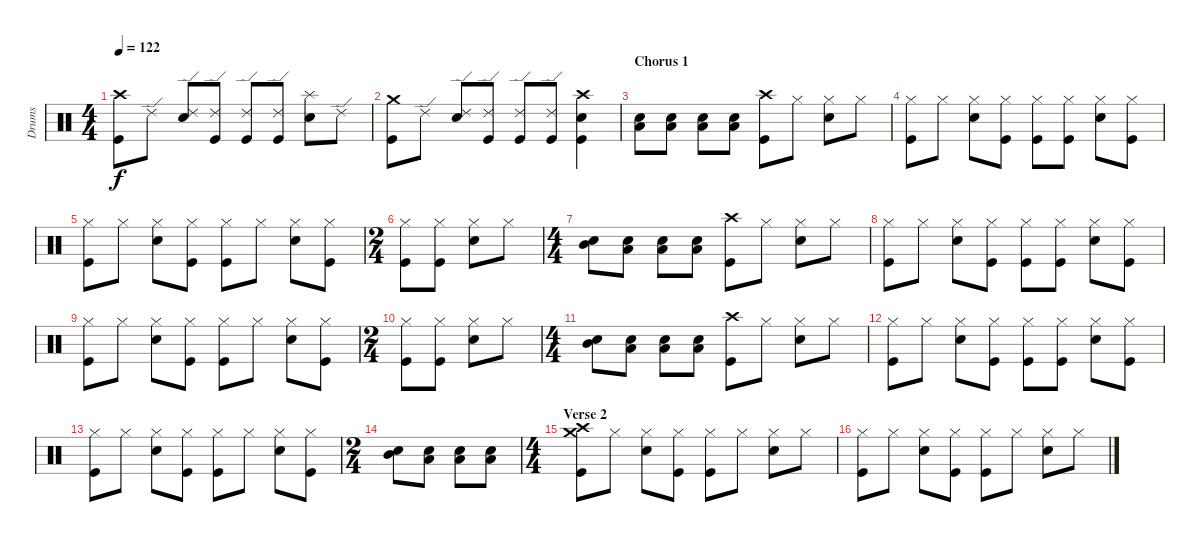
\track ("Drums" "Drums") {instrument percussion}
\staff {score}
\articulation defaults
\ts (4 4)
\tempo 122
\clef neutral
\ks c
("Crash high (hit)" "Kick (hit)").8{dy f} "Ride (edge) 2".8 ("Ride (edge) 2" "Snare (hit) 2").8 ("Ride (edge) 2" "Kick (hit)").8 ("Ride (edge) 2" "Kick (hit)").8 ("Ride (edge) 2" "Kick (hit)").8 ("Splash (hit)" "Snare (hit) 2").8 "Ride (edge) 2".8 |
("Crash medium (hit)" "Kick (hit)").8 "Ride (edge) 2".8 ("Ride (edge) 2" "Snare (hit) 2").8 ("Ride (edge) 2" "Kick (hit)").8 ("Ride (edge) 2" "Kick (hit)").8 ("Ride (edge) 2" "Kick (hit)").8 ("Crash high (hit)" "Snare (hit) 2" "Kick (hit)").4 |
\section ("" "Chorus 1")
("Low Floor Tom (hit)" "Snare (hit) 2").8 ("Low Floor Tom (hit)" "Snare (hit) 2").8 ("Low Floor Tom (hit)" "Snare (hit) 2").8 ("Low Floor Tom (hit)" "Snare (hit) 2").8 ("Crash high (hit)" "Kick (hit)").8 "Hi-Hat (closed)".8 ("Hi-Hat (closed)" "Snare (hit) 2").8 "Hi-Hat (closed)".8 |
("Hi-Hat (closed)" "Kick (hit)").8 "Hi-Hat (closed)".8 ("Hi-Hat (closed)" "Snare (hit) 2").8 ("Hi-Hat (closed)" "Kick (hit)").8 ("Hi-Hat (closed)" "Kick (hit)").8 ("Hi-Hat (closed)" "Kick (hit)").8 ("Hi-Hat (closed)" "Snare (hit) 2").8 ("Hi-Hat (closed)" "Kick (hit)").8 |
("Hi-Hat (closed)" "Kick (hit)").8 "Hi-Hat (closed)".8 ("Hi-Hat (closed)" "Snare (hit) 2").8 ("Hi-Hat (closed)" "Kick (hit)").8 ("Hi-Hat (closed)" "Kick (hit)").8 "Hi-Hat (closed)".8 ("Hi-Hat (closed)" "Snare (hit) 2").8 ("Hi-Hat (closed)" "Kick (hit)").8 |
\ts (2 4)
("Hi-Hat (closed)" "Kick (hit)").8 ("Hi-Hat (closed)" "Kick (hit)").8 ("Hi-Hat (closed)" "Snare (hit) 2").8 "Hi-Hat (closed)".8 |
\ts (4 4)
("Mid Tom (hit)" "Snare (hit) 2").8 ("Low Tom (hit)" "Snare (hit) 2").8 ("Low Floor Tom (hit)" "Snare (hit) 2").8 ("Low Floor Tom (hit)" "Snare (hit) 2").8 ("Crash high (hit)" "Kick (hit)").8 "Hi-Hat (closed)".8 ("Hi-Hat (closed)" "Snare (hit) 2").8 "Hi-Hat (closed)".8 |
("Hi-Hat (closed)" "Kick (hit)").8 "Hi-Hat (closed)".8 ("Hi-Hat (closed)" "Snare (hit) 2").8 ("Hi-Hat (closed)" "Kick (hit)").8 ("Hi-Hat (closed)" "Kick (hit)").8 ("Hi-Hat (closed)" "Kick (hit)").8 ("Hi-Hat (closed)" "Snare (hit) 2").8 ("Hi-Hat (closed)" "Kick (hit)").8 |
("Hi-Hat (closed)" "Kick (hit)").8 "Hi-Hat (closed)".8 ("Hi-Hat (closed)" "Snare (hit) 2").8 ("Hi-Hat (closed)" "Kick (hit)").8 ("Hi-Hat (closed)" "Kick (hit)").8 "Hi-Hat (closed)".8 ("Hi-Hat (closed)" "Snare (hit) 2").8 ("Hi-Hat (closed)" "Kick (hit)").8 |
\ts (2 4)
("Hi-Hat (closed)" "Kick (hit)").8 ("Hi-Hat (closed)" "Kick (hit)").8 ("Hi-Hat (closed)" "Snare (hit) 2").8 "Hi-Hat (closed)".8 |
\ts (4 4)
("Mid Tom (hit)" "Snare (hit) 2").8 ("Low Tom (hit)" "Snare (hit) 2").8 ("Low Floor Tom (hit)" "Snare (hit) 2").8 ("Low Floor Tom (hit)" "Snare (hit) 2").8 ("Crash high (hit)" "Kick (hit)").8 "Hi-Hat (closed)".8 ("Hi-Hat (closed)" "Snare (hit) 2").8 "Hi-Hat (closed)".8 |
("Hi-Hat (closed)" "Kick (hit)").8 "Hi-Hat (closed)".8 ("Hi-Hat (closed)" "Snare (hit) 2").8 ("Hi-Hat (closed)" "Kick (hit)").8 ("Hi-Hat (closed)" "Kick (hit)").8 ("Hi-Hat (closed)" "Kick (hit)").8 ("Hi-Hat (closed)" "Snare (hit) 2").8 ("Hi-Hat (closed)" "Kick (hit)").8 |
("Hi-Hat (closed)" "Kick (hit)").8 "Hi-Hat (closed)".8 ("Hi-Hat (closed)" "Snare (hit) 2").8 ("Hi-Hat (closed)" "Kick (hit)").8 ("Hi-Hat (closed)" "Kick (hit)").8 "Hi-Hat (closed)".8 ("Hi-Hat (closed)" "Snare (hit) 2").8 ("Hi-Hat (closed)" "Kick (hit)").8 |
\ts (2 4)
("Mid Tom (hit)" "Snare (hit) 2").8 ("Low Tom (hit)" "Snare (hit) 2").8 ("Low Floor Tom (hit)" "Snare (hit) 2").8 ("Low Floor Tom (hit)" "Snare (hit) 2").8 |
\ts (4 4)
\section ("" "Verse 2")
("Crash high (hit)" "Crash medium (hit)" "Kick (hit)").8 "Hi-Hat (closed)".8 ("Hi-Hat (closed)" "Snare (hit) 2").8 ("Hi-Hat (closed)" "Kick (hit)").8 ("Hi-Hat (closed)" "Kick (hit)").8 "Hi-Hat (closed)".8 ("Hi-Hat (closed)" "Snare (hit) 2").8 "Hi-Hat (closed)".8 |
("Hi-Hat (closed)" "Kick (hit)").8 "Hi-Hat (closed)".8 ("Hi-Hat (closed)" "Snare (hit) 2").8 ("Hi-Hat (closed)" "Kick (hit)").8 ("Hi-Hat (closed)" "Kick (hit)").8 "Hi-Hat (closed)".8 ("Hi-Hat (closed)" "Snare (hit) 2").8 "Hi-Hat (closed)".8
